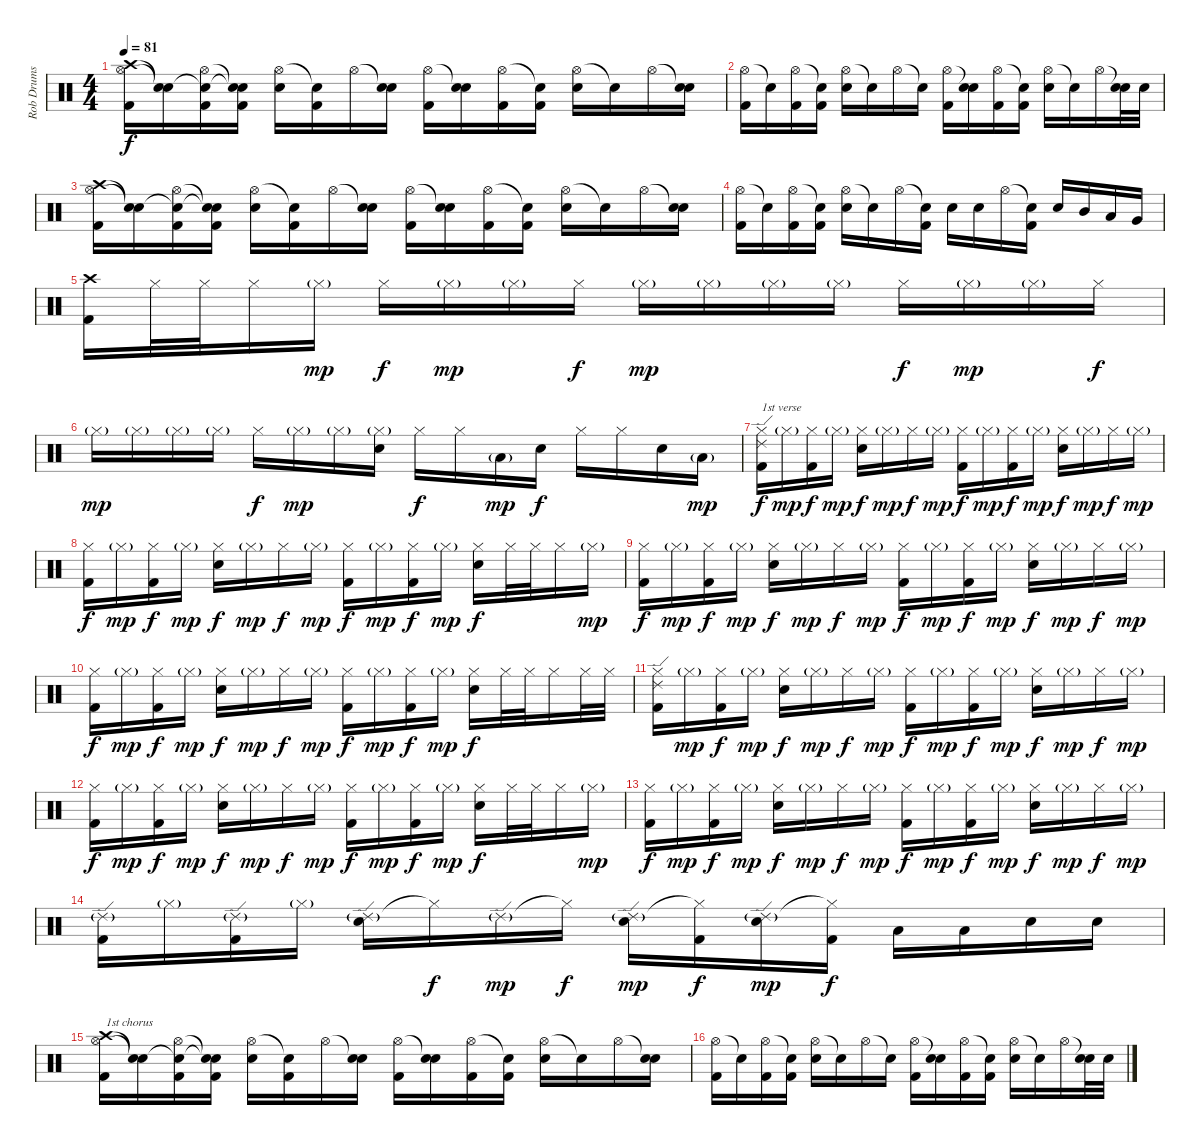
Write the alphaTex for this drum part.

\track ("Rob Drums" "Rob Drums") {instrument percussion}
\staff {score}
\articulation defaults
\ts (4 4)
\tempo 81
\clef neutral
\ks c
("Crash high (hit)" "Hi-Hat (open)" "Kick (hit) 2").16{dy f volume 12} ("Snare (hit)"{t} "Snare (hit)"{t}).16 ("Snare (hit)"{t} "Hi-Hat (open)" "Kick (hit) 2").16 ("Snare (hit)"{t} "Snare (hit)"{t} "Kick (hit) 2").16 ("Hi-Hat (open)" "Electric Snare (hit)").16 ("Snare (hit)"{t} "Kick (hit) 2").16 "Hi-Hat (open)".16 ("Snare (hit)"{t} "Electric Snare (hit)").16 ("Hi-Hat (open)" "Kick (hit) 2").16 ("Snare (hit)"{t} "Electric Snare (hit)").16 ("Hi-Hat (open)" "Kick (hit) 2").16 ("Snare (hit)"{t} "Kick (hit) 2").16 ("Hi-Hat (open)" "Electric Snare (hit)").16 "Snare (hit)"{t}.16 "Hi-Hat (open)".16 ("Snare (hit)"{t} "Electric Snare (hit)").16 |
("Hi-Hat (open)" "Kick (hit) 2").16 "Snare (hit)"{t}.16 ("Hi-Hat (open)" "Kick (hit) 2").16 ("Snare (hit)"{t} "Kick (hit) 2").16 ("Hi-Hat (open)" "Electric Snare (hit)").16 "Snare (hit)"{t}.16 "Hi-Hat (open)".16 "Snare (hit)"{t}.16 ("Hi-Hat (open)" "Kick (hit) 2").16 ("Snare (hit)"{t} "Electric Snare (hit)").16 ("Hi-Hat (open)" "Kick (hit) 2").16 ("Snare (hit)"{t} "Kick (hit) 2").16 ("Hi-Hat (open)" "Electric Snare (hit)").16 "Snare (hit)"{t}.16 "Hi-Hat (open)".16 ("Snare (hit)"{t} "Electric Snare (hit)").32 "Electric Snare (hit)".32 |
("Crash high (hit)" "Hi-Hat (open)" "Kick (hit) 2").16 ("Snare (hit)"{t} "Snare (hit)"{t}).16 ("Snare (hit)"{t} "Hi-Hat (open)" "Kick (hit) 2").16 ("Snare (hit)"{t} "Snare (hit)"{t} "Kick (hit) 2").16 ("Hi-Hat (open)" "Electric Snare (hit)").16 ("Snare (hit)"{t} "Kick (hit) 2").16 "Hi-Hat (open)".16 ("Snare (hit)"{t} "Electric Snare (hit)").16 ("Hi-Hat (open)" "Kick (hit) 2").16 ("Snare (hit)"{t} "Electric Snare (hit)").16 ("Hi-Hat (open)" "Kick (hit) 2").16 ("Snare (hit)"{t} "Kick (hit) 2").16 ("Hi-Hat (open)" "Electric Snare (hit)").16 "Snare (hit)"{t}.16 "Hi-Hat (open)".16 ("Snare (hit)"{t} "Electric Snare (hit)").16 |
("Hi-Hat (open)" "Kick (hit) 2").16 "Snare (hit)"{t}.16 ("Hi-Hat (open)" "Kick (hit) 2").16 ("Snare (hit)"{t} "Kick (hit) 2").16 ("Hi-Hat (open)" "Electric Snare (hit)").16 "Snare (hit)"{t}.16 "Hi-Hat (open)".16 ("Snare (hit)"{t} "Kick (hit) 2").16 "Electric Snare (hit)".16 "Electric Snare (hit)".16 "Hi-Hat (open)".16 ("Snare (hit)"{t} "Kick (hit) 2").16 "Electric Snare (hit)".16 "Mid Tom (hit)".16 "Low Tom (hit)".16 "Very Low Tom (hit)".16 |
("Crash high (hit)" "Kick (hit) 2").16 "Hi-Hat (closed)".32 "Hi-Hat (closed)".32 "Hi-Hat (closed)".16 "Hi-Hat (closed)"{g}.16{dy mp} "Hi-Hat (closed)".16{dy f} "Hi-Hat (closed)"{g}.16{dy mp} "Hi-Hat (closed)"{g}.16 "Hi-Hat (closed)".16{dy f} "Hi-Hat (closed)"{g}.16{dy mp} "Hi-Hat (closed)"{g}.16 "Hi-Hat (closed)"{g}.16 "Hi-Hat (closed)"{g}.16 "Hi-Hat (closed)".16{dy f} "Hi-Hat (closed)"{g}.16{dy mp} "Hi-Hat (closed)"{g}.16 "Hi-Hat (closed)".16{dy f} |
"Hi-Hat (closed)"{g}.16{dy mp} "Hi-Hat (closed)"{g}.16 "Hi-Hat (closed)"{g}.16 "Hi-Hat (closed)"{g}.16 "Hi-Hat (closed)".16{dy f} "Hi-Hat (closed)"{g}.16{dy mp} "Hi-Hat (closed)"{g}.16 ("Hi-Hat (closed)"{g} "Electric Snare (hit)").16 "Hi-Hat (closed)".16{dy f} "Hi-Hat (closed)".16 "Low Tom (hit)"{g}.16{dy mp} "Electric Snare (hit)".16{dy f} "Hi-Hat (closed)".16 "Hi-Hat (closed)".16 "Electric Snare (hit)".16 "Low Tom (hit)"{g}.16{dy mp} |
("Ride (edge) 2" "Hi-Hat (closed)" "Kick (hit) 2").16{txt "1st verse" dy f} "Hi-Hat (closed)"{g}.16{dy mp} ("Hi-Hat (closed)" "Kick (hit) 2").16{dy f} "Hi-Hat (closed)"{g}.16{dy mp} ("Hi-Hat (closed)" "Electric Snare (hit)").16{dy f} "Hi-Hat (closed)"{g}.16{dy mp} "Hi-Hat (closed)".16{dy f} "Hi-Hat (closed)"{g}.16{dy mp} ("Hi-Hat (closed)" "Kick (hit) 2").16{dy f} "Hi-Hat (closed)"{g}.16{dy mp} ("Hi-Hat (closed)" "Kick (hit) 2").16{dy f} "Hi-Hat (closed)"{g}.16{dy mp} ("Hi-Hat (closed)" "Electric Snare (hit)").16{dy f} "Hi-Hat (closed)"{g}.16{dy mp} "Hi-Hat (closed)".16{dy f} "Hi-Hat (closed)"{g}.16{dy mp} |
("Hi-Hat (closed)" "Kick (hit) 2").16{dy f} "Hi-Hat (closed)"{g}.16{dy mp} ("Hi-Hat (closed)" "Kick (hit) 2").16{dy f} "Hi-Hat (closed)"{g}.16{dy mp} ("Hi-Hat (closed)" "Electric Snare (hit)").16{dy f} "Hi-Hat (closed)"{g}.16{dy mp} "Hi-Hat (closed)".16{dy f} "Hi-Hat (closed)"{g}.16{dy mp} ("Hi-Hat (closed)" "Kick (hit) 2").16{dy f} "Hi-Hat (closed)"{g}.16{dy mp} ("Hi-Hat (closed)" "Kick (hit) 2").16{dy f} "Hi-Hat (closed)"{g}.16{dy mp} ("Hi-Hat (closed)" "Electric Snare (hit)").16{dy f} "Hi-Hat (closed)".32 "Hi-Hat (closed)".32 "Hi-Hat (closed)".16 "Hi-Hat (closed)"{g}.16{dy mp} |
("Hi-Hat (closed)" "Kick (hit) 2").16{dy f} "Hi-Hat (closed)"{g}.16{dy mp} ("Hi-Hat (closed)" "Kick (hit) 2").16{dy f} "Hi-Hat (closed)"{g}.16{dy mp} ("Hi-Hat (closed)" "Electric Snare (hit)").16{dy f} "Hi-Hat (closed)"{g}.16{dy mp} "Hi-Hat (closed)".16{dy f} "Hi-Hat (closed)"{g}.16{dy mp} ("Hi-Hat (closed)" "Kick (hit) 2").16{dy f} "Hi-Hat (closed)"{g}.16{dy mp} ("Hi-Hat (closed)" "Kick (hit) 2").16{dy f} "Hi-Hat (closed)"{g}.16{dy mp} ("Hi-Hat (closed)" "Electric Snare (hit)").16{dy f} "Hi-Hat (closed)"{g}.16{dy mp} "Hi-Hat (closed)".16{dy f} "Hi-Hat (closed)"{g}.16{dy mp} |
("Hi-Hat (closed)" "Kick (hit) 2").16{dy f} "Hi-Hat (closed)"{g}.16{dy mp} ("Hi-Hat (closed)" "Kick (hit) 2").16{dy f} "Hi-Hat (closed)"{g}.16{dy mp} ("Hi-Hat (closed)" "Electric Snare (hit)").16{dy f} "Hi-Hat (closed)"{g}.16{dy mp} "Hi-Hat (closed)".16{dy f} "Hi-Hat (closed)"{g}.16{dy mp} ("Hi-Hat (closed)" "Kick (hit) 2").16{dy f} "Hi-Hat (closed)"{g}.16{dy mp} ("Hi-Hat (closed)" "Kick (hit) 2").16{dy f} "Hi-Hat (closed)"{g}.16{dy mp} ("Hi-Hat (closed)" "Electric Snare (hit)").16{dy f} "Hi-Hat (closed)".32 "Hi-Hat (closed)".32 "Hi-Hat (closed)".16 "Hi-Hat (closed)".32 "Hi-Hat (closed)".32 |
("Ride (edge) 2" "Hi-Hat (closed)" "Kick (hit) 2").16 "Hi-Hat (closed)"{g}.16{dy mp} ("Hi-Hat (closed)" "Kick (hit) 2").16{dy f} "Hi-Hat (closed)"{g}.16{dy mp} ("Hi-Hat (closed)" "Electric Snare (hit)").16{dy f} "Hi-Hat (closed)"{g}.16{dy mp} "Hi-Hat (closed)".16{dy f} "Hi-Hat (closed)"{g}.16{dy mp} ("Hi-Hat (closed)" "Kick (hit) 2").16{dy f} "Hi-Hat (closed)"{g}.16{dy mp} ("Hi-Hat (closed)" "Kick (hit) 2").16{dy f} "Hi-Hat (closed)"{g}.16{dy mp} ("Hi-Hat (closed)" "Electric Snare (hit)").16{dy f} "Hi-Hat (closed)"{g}.16{dy mp} "Hi-Hat (closed)".16{dy f} "Hi-Hat (closed)"{g}.16{dy mp} |
("Hi-Hat (closed)" "Kick (hit) 2").16{dy f} "Hi-Hat (closed)"{g}.16{dy mp} ("Hi-Hat (closed)" "Kick (hit) 2").16{dy f} "Hi-Hat (closed)"{g}.16{dy mp} ("Hi-Hat (closed)" "Electric Snare (hit)").16{dy f} "Hi-Hat (closed)"{g}.16{dy mp} "Hi-Hat (closed)".16{dy f} "Hi-Hat (closed)"{g}.16{dy mp} ("Hi-Hat (closed)" "Kick (hit) 2").16{dy f} "Hi-Hat (closed)"{g}.16{dy mp} ("Hi-Hat (closed)" "Kick (hit) 2").16{dy f} "Hi-Hat (closed)"{g}.16{dy mp} ("Hi-Hat (closed)" "Electric Snare (hit)").16{dy f} "Hi-Hat (closed)".32 "Hi-Hat (closed)".32 "Hi-Hat (closed)".16 "Hi-Hat (closed)"{g}.16{dy mp} |
("Hi-Hat (closed)" "Kick (hit) 2").16{dy f} "Hi-Hat (closed)"{g}.16{dy mp} ("Hi-Hat (closed)" "Kick (hit) 2").16{dy f} "Hi-Hat (closed)"{g}.16{dy mp} ("Hi-Hat (closed)" "Electric Snare (hit)").16{dy f} "Hi-Hat (closed)"{g}.16{dy mp} "Hi-Hat (closed)".16{dy f} "Hi-Hat (closed)"{g}.16{dy mp} ("Hi-Hat (closed)" "Kick (hit) 2").16{dy f} "Hi-Hat (closed)"{g}.16{dy mp} ("Hi-Hat (closed)" "Kick (hit) 2").16{dy f} "Hi-Hat (closed)"{g}.16{dy mp} ("Hi-Hat (closed)" "Electric Snare (hit)").16{dy f} "Hi-Hat (closed)"{g}.16{dy mp} "Hi-Hat (closed)".16{dy f} "Hi-Hat (closed)"{g}.16{dy mp} |
("Ride (edge) 2"{g} "Kick (hit) 2").16 "Hi-Hat (closed)"{g}.16 ("Ride (edge) 2"{g} "Kick (hit) 2").16 "Hi-Hat (closed)"{g}.16 ("Ride (edge) 2"{g} "Electric Snare (hit)").16 "Hi-Hat (closed)"{t}.16{dy f} "Ride (edge) 2"{g}.16{dy mp} "Hi-Hat (closed)"{t}.16{dy f} ("Ride (edge) 2"{g} "Electric Snare (hit)").16{dy mp} ("Hi-Hat (closed)"{t} "Kick (hit) 2").16{dy f} ("Ride (edge) 2"{g} "Electric Snare (hit)").16{dy mp} ("Hi-Hat (closed)"{t} "Kick (hit) 2").16{dy f} "Low Tom (hit)".16 "Low Tom (hit)".16 "Electric Snare (hit)".16 "Electric Snare (hit)".16 |
("Crash high (hit)" "Hi-Hat (open)" "Kick (hit) 2").16{txt "1st chorus"} ("Snare (hit)"{t} "Snare (hit)"{t}).16 ("Snare (hit)"{t} "Hi-Hat (open)" "Kick (hit) 2").16 ("Snare (hit)"{t} "Snare (hit)"{t} "Kick (hit) 2").16 ("Hi-Hat (open)" "Electric Snare (hit)").16 ("Snare (hit)"{t} "Kick (hit) 2").16 "Hi-Hat (open)".16 ("Snare (hit)"{t} "Electric Snare (hit)").16 ("Hi-Hat (open)" "Kick (hit) 2").16 ("Snare (hit)"{t} "Electric Snare (hit)").16 ("Hi-Hat (open)" "Kick (hit) 2").16 ("Snare (hit)"{t} "Kick (hit) 2").16 ("Hi-Hat (open)" "Electric Snare (hit)").16 "Snare (hit)"{t}.16 "Hi-Hat (open)".16 ("Snare (hit)"{t} "Electric Snare (hit)").16 |
("Hi-Hat (open)" "Kick (hit) 2").16 "Snare (hit)"{t}.16 ("Hi-Hat (open)" "Kick (hit) 2").16 ("Snare (hit)"{t} "Kick (hit) 2").16 ("Hi-Hat (open)" "Electric Snare (hit)").16 "Snare (hit)"{t}.16 "Hi-Hat (open)".16 "Snare (hit)"{t}.16 ("Hi-Hat (open)" "Kick (hit) 2").16 ("Snare (hit)"{t} "Electric Snare (hit)").16 ("Hi-Hat (open)" "Kick (hit) 2").16 ("Snare (hit)"{t} "Kick (hit) 2").16 ("Hi-Hat (open)" "Electric Snare (hit)").16 "Snare (hit)"{t}.16 "Hi-Hat (open)".16 ("Snare (hit)"{t} "Electric Snare (hit)").32 "Electric Snare (hit)".32
